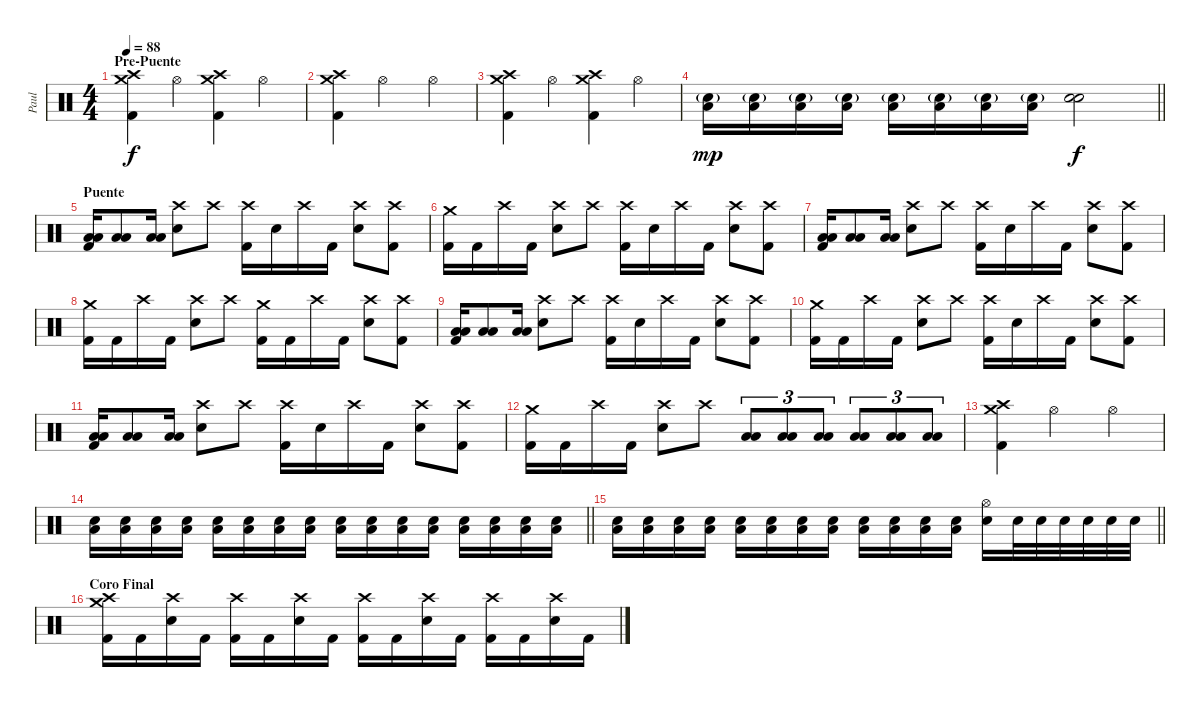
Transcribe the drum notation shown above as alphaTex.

\track ("Paul" "Paul") {instrument percussion}
\staff
\articulation defaults
\ts (4 4)
\section ("" "Pre-Puente")
\tempo 88
\clef neutral
\ks c
("Crash medium (hit)" "Crash high (hit)" "Kick (hit) 2").4{dy f} "Hi-Hat (open)".4 ("Crash medium (hit)" "Crash high (hit)" "Kick (hit) 2").4 "Hi-Hat (open)".4 |
("Crash medium (hit)" "Crash high (hit)" "Kick (hit) 2").4 "Hi-Hat (open)".2 "Hi-Hat (open)".4 |
("Crash medium (hit)" "Crash high (hit)" "Kick (hit) 2").4 "Hi-Hat (open)".4 ("Crash medium (hit)" "Crash high (hit)" "Kick (hit) 2").4 "Hi-Hat (open)".4 |
\barLineRight lightlight
("Electric Snare (hit)"{g} "Low Floor Tom (hit)").16{dy mp} ("Electric Snare (hit)"{g} "Low Floor Tom (hit)").16 ("Electric Snare (hit)"{g} "Low Floor Tom (hit)").16 ("Electric Snare (hit)"{g} "Low Floor Tom (hit)").16 ("Electric Snare (hit)"{g} "Low Floor Tom (hit)").16 ("Electric Snare (hit)"{g} "Low Floor Tom (hit)").16 ("Electric Snare (hit)"{g} "Low Floor Tom (hit)").16 ("Electric Snare (hit)"{g} "Low Floor Tom (hit)").16 ("Electric Snare (hit)" "Electric Snare (hit)").2{dy f} |
\section ("" "Puente")
("Low Tom (hit)" "Low Floor Tom (hit)" "Kick (hit) 2").16 ("Low Tom (hit)" "Low Floor Tom (hit)").8 ("Low Tom (hit)" "Low Floor Tom (hit)").16 ("Crash high (hit)" "Electric Snare (hit)").8 "Crash high (hit)".8 ("Crash high (hit)" "Kick (hit) 2").16 "Electric Snare (hit)".16 "Crash high (hit)".16 "Kick (hit) 2".16 ("Crash high (hit)" "Electric Snare (hit)").8 ("Crash high (hit)" "Kick (hit) 2").8 |
("Crash medium (hit)" "Kick (hit) 2").16 "Kick (hit) 2".16 "Crash high (hit)".16 "Kick (hit) 2".16 ("Crash high (hit)" "Electric Snare (hit)").8 "Crash high (hit)".8 ("Crash high (hit)" "Kick (hit) 2").16 "Electric Snare (hit)".16 "Crash high (hit)".16 "Kick (hit) 2".16 ("Crash high (hit)" "Electric Snare (hit)").8 ("Crash high (hit)" "Kick (hit) 2").8 |
("Low Tom (hit)" "Low Floor Tom (hit)" "Kick (hit) 2").16 ("Low Tom (hit)" "Low Floor Tom (hit)").8 ("Low Tom (hit)" "Low Floor Tom (hit)").16 ("Crash high (hit)" "Electric Snare (hit)").8 "Crash high (hit)".8 ("Crash high (hit)" "Kick (hit) 2").16 "Electric Snare (hit)".16 "Crash high (hit)".16 "Kick (hit) 2".16 ("Crash high (hit)" "Electric Snare (hit)").8 ("Crash high (hit)" "Kick (hit) 2").8 |
("Crash medium (hit)" "Kick (hit) 2").16 "Kick (hit) 2".16 "Crash high (hit)".16 "Kick (hit) 2".16 ("Crash high (hit)" "Electric Snare (hit)").8 "Crash high (hit)".8 ("Crash medium (hit)" "Kick (hit) 2").16 "Kick (hit) 2".16 "Crash high (hit)".16 "Kick (hit) 2".16 ("Crash high (hit)" "Electric Snare (hit)").8 ("Crash high (hit)" "Kick (hit) 2").8 |
("Low Tom (hit)" "Low Floor Tom (hit)" "Kick (hit) 2").16 ("Low Tom (hit)" "Low Floor Tom (hit)").8 ("Low Tom (hit)" "Low Floor Tom (hit)").16 ("Crash high (hit)" "Electric Snare (hit)").8 "Crash high (hit)".8 ("Crash high (hit)" "Kick (hit) 2").16 "Electric Snare (hit)".16 "Crash high (hit)".16 "Kick (hit) 2".16 ("Crash high (hit)" "Electric Snare (hit)").8 ("Crash high (hit)" "Kick (hit) 2").8 |
("Crash medium (hit)" "Kick (hit) 2").16 "Kick (hit) 2".16 "Crash high (hit)".16 "Kick (hit) 2".16 ("Crash high (hit)" "Electric Snare (hit)").8 "Crash high (hit)".8 ("Crash high (hit)" "Kick (hit) 2").16 "Electric Snare (hit)".16 "Crash high (hit)".16 "Kick (hit) 2".16 ("Crash high (hit)" "Electric Snare (hit)").8 ("Crash high (hit)" "Kick (hit) 2").8 |
("Low Tom (hit)" "Low Floor Tom (hit)" "Kick (hit) 2").16 ("Low Tom (hit)" "Low Floor Tom (hit)").8 ("Low Tom (hit)" "Low Floor Tom (hit)").16 ("Crash high (hit)" "Electric Snare (hit)").8 "Crash high (hit)".8 ("Crash high (hit)" "Kick (hit) 2").16 "Electric Snare (hit)".16 "Crash high (hit)".16 "Kick (hit) 2".16 ("Crash high (hit)" "Electric Snare (hit)").8 ("Crash high (hit)" "Kick (hit) 2").8 |
("Crash medium (hit)" "Kick (hit) 2").16 "Kick (hit) 2".16 "Crash high (hit)".16 "Kick (hit) 2".16 ("Crash high (hit)" "Electric Snare (hit)").8 "Crash high (hit)".8 ("Low Tom (hit)" "Low Floor Tom (hit)").8{tu (3 2)} ("Low Tom (hit)" "Low Floor Tom (hit)").8{tu (3 2)} ("Low Tom (hit)" "Low Floor Tom (hit)").8{tu (3 2)} ("Low Tom (hit)" "Low Floor Tom (hit)").8{tu (3 2)} ("Low Tom (hit)" "Low Floor Tom (hit)").8{tu (3 2)} ("Low Tom (hit)" "Low Floor Tom (hit)").8{tu (3 2)} |
("Crash medium (hit)" "Crash high (hit)" "Kick (hit) 2").4 "Hi-Hat (open)".2 "Hi-Hat (open)".4 |
\barLineRight lightlight
("Electric Snare (hit)" "Low Floor Tom (hit)").16 ("Electric Snare (hit)" "Low Floor Tom (hit)").16 ("Electric Snare (hit)" "Low Floor Tom (hit)").16 ("Electric Snare (hit)" "Low Floor Tom (hit)").16 ("Electric Snare (hit)" "Low Floor Tom (hit)").16 ("Electric Snare (hit)" "Low Floor Tom (hit)").16 ("Electric Snare (hit)" "Low Floor Tom (hit)").16 ("Electric Snare (hit)" "Low Floor Tom (hit)").16 ("Electric Snare (hit)" "Low Floor Tom (hit)").16 ("Electric Snare (hit)" "Low Floor Tom (hit)").16 ("Electric Snare (hit)" "Low Floor Tom (hit)").16 ("Electric Snare (hit)" "Low Floor Tom (hit)").16 ("Electric Snare (hit)" "Low Floor Tom (hit)").16 ("Electric Snare (hit)" "Low Floor Tom (hit)").16 ("Electric Snare (hit)" "Low Floor Tom (hit)").16 ("Electric Snare (hit)" "Low Floor Tom (hit)").16 |
\barLineRight lightlight
("Electric Snare (hit)" "Low Floor Tom (hit)").16 ("Electric Snare (hit)" "Low Floor Tom (hit)").16 ("Electric Snare (hit)" "Low Floor Tom (hit)").16 ("Electric Snare (hit)" "Low Floor Tom (hit)").16 ("Electric Snare (hit)" "Low Floor Tom (hit)").16 ("Electric Snare (hit)" "Low Floor Tom (hit)").16 ("Electric Snare (hit)" "Low Floor Tom (hit)").16 ("Electric Snare (hit)" "Low Floor Tom (hit)").16 ("Electric Snare (hit)" "Low Floor Tom (hit)").16 ("Electric Snare (hit)" "Low Floor Tom (hit)").16 ("Electric Snare (hit)" "Low Floor Tom (hit)").16 ("Electric Snare (hit)" "Low Floor Tom (hit)").16 ("Hi-Hat (open)" "Electric Snare (hit)").16 "Electric Snare (hit)".32 "Electric Snare (hit)".32 "Electric Snare (hit)".32 "Electric Snare (hit)".32 "Electric Snare (hit)".32 "Electric Snare (hit)".32 |
\section ("" "Coro Final")
("Crash medium (hit)" "Crash high (hit)" "Kick (hit) 2").16 "Kick (hit) 2".16 ("Crash high (hit)" "Electric Snare (hit)").16 "Kick (hit) 2".16 ("Crash high (hit)" "Kick (hit) 2").16 "Kick (hit) 2".16 ("Crash high (hit)" "Electric Snare (hit)").16 "Kick (hit) 2".16 ("Crash high (hit)" "Kick (hit) 2").16 "Kick (hit) 2".16 ("Crash high (hit)" "Electric Snare (hit)").16 "Kick (hit) 2".16 ("Crash high (hit)" "Kick (hit) 2").16 "Kick (hit) 2".16 ("Crash high (hit)" "Electric Snare (hit)").16 "Kick (hit) 2".16
